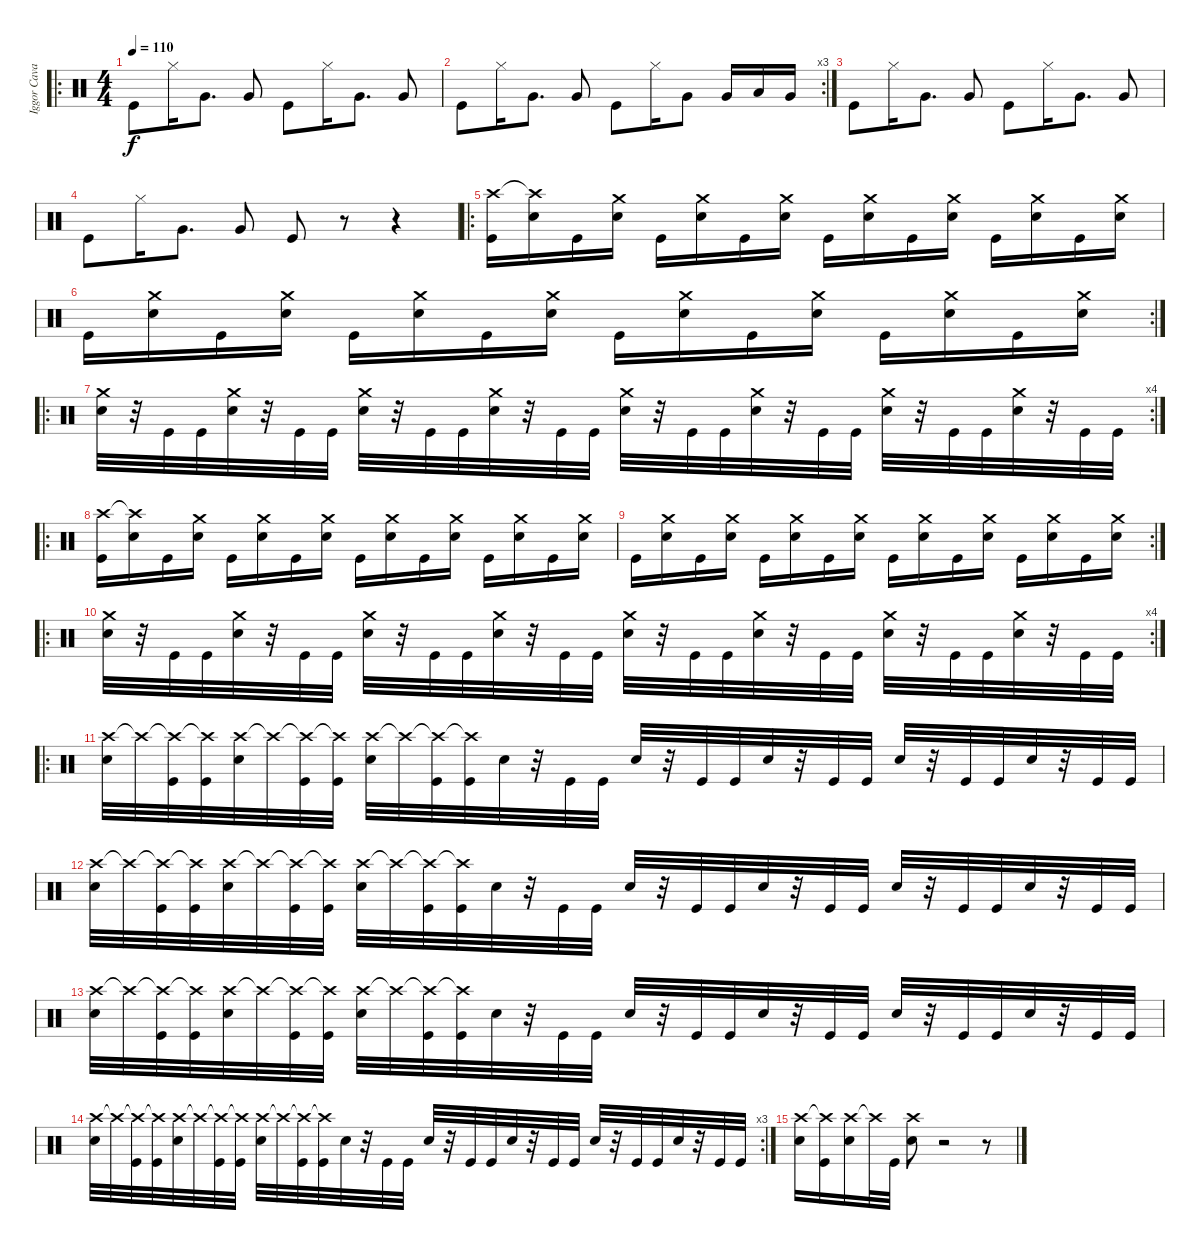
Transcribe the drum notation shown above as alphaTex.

\track ("Iggor Cavalera" "Iggor Cava") {instrument percussion}
\staff {score}
\articulation defaults
\ro
\ts (4 4)
\tempo 110
\clef neutral
\ks c "Kick (hit)".8{dy f} "Hi-Hat (closed)".16 "Very Low Tom (hit)".8{d} "Very Low Tom (hit)".8 "Kick (hit)".8 "Hi-Hat (closed)".16 "Very Low Tom (hit)".8{d} "Very Low Tom (hit)".8
|
\rc 3 "Kick (hit)".8 "Hi-Hat (closed)".16 "Very Low Tom (hit)".8{d} "Very Low Tom (hit)".8 "Kick (hit)".8 "Hi-Hat (closed)".16 "Very Low Tom (hit)".8 "Very Low Tom (hit)".16 "Low Tom (hit)".16 "Very Low Tom (hit)".16
|
"Kick (hit)".8 "Hi-Hat (closed)".16 "Very Low Tom (hit)".8{d} "Very Low Tom (hit)".8 "Kick (hit)".8 "Hi-Hat (closed)".16 "Very Low Tom (hit)".8{d} "Very Low Tom (hit)".8 |
"Kick (hit)".8 "Hi-Hat (closed)".16 "Very Low Tom (hit)".8{d} "Very Low Tom (hit)".8 "Kick (hit)".8 r.8 r.4 |
\ro
("Crash high (hit)" "Kick (hit)").16 ("Crash high (hit)"{t} "Snare (hit) 2").16 "Kick (hit)".16 ("Crash medium (hit)" "Snare (hit) 2").16 "Kick (hit)".16 ("Crash medium (hit)" "Snare (hit) 2").16 "Kick (hit)".16 ("Crash medium (hit)" "Snare (hit) 2").16 "Kick (hit)".16 ("Crash medium (hit)" "Snare (hit) 2").16 "Kick (hit)".16 ("Crash medium (hit)" "Snare (hit) 2").16 "Kick (hit)".16 ("Crash medium (hit)" "Snare (hit) 2").16 "Kick (hit)".16 ("Crash medium (hit)" "Snare (hit) 2").16 |
\rc 2 "Kick (hit)".16
("Crash medium (hit)" "Snare (hit) 2").16 "Kick (hit)".16 ("Crash medium (hit)" "Snare (hit) 2").16 "Kick (hit)".16 ("Crash medium (hit)" "Snare (hit) 2").16 "Kick (hit)".16 ("Crash medium (hit)" "Snare (hit) 2").16 "Kick (hit)".16 ("Crash medium (hit)" "Snare (hit) 2").16 "Kick (hit)".16 ("Crash medium (hit)" "Snare (hit) 2").16 "Kick (hit)".16 ("Crash medium (hit)" "Snare (hit) 2").16 "Kick (hit)".16 ("Crash medium (hit)" "Snare (hit) 2").16 |
\ro
\rc 4
("Crash medium (hit)" "Snare (hit) 2").32 r.32 "Kick (hit)".32 "Kick (hit)".32 ("Crash medium (hit)" "Snare (hit) 2").32 r.32 "Kick (hit)".32 "Kick (hit)".32 ("Crash medium (hit)" "Snare (hit) 2").32 r.32 "Kick (hit)".32 "Kick (hit)".32 ("Crash medium (hit)" "Snare (hit) 2").32 r.32 "Kick (hit)".32 "Kick (hit)".32 ("Crash medium (hit)" "Snare (hit) 2").32 r.32 "Kick (hit)".32 "Kick (hit)".32 ("Crash medium (hit)" "Snare (hit) 2").32 r.32 "Kick (hit)".32 "Kick (hit)".32 ("Crash medium (hit)" "Snare (hit) 2").32 r.32 "Kick (hit)".32 "Kick (hit)".32 ("Crash medium (hit)" "Snare (hit) 2").32 r.32 "Kick (hit)".32 "Kick (hit)".32 |
\ro
("Crash high (hit)" "Kick (hit)").16 ("Crash high (hit)"{t} "Snare (hit) 2").16 "Kick (hit)".16 ("Crash medium (hit)" "Snare (hit) 2").16 "Kick (hit)".16 ("Crash medium (hit)" "Snare (hit) 2").16 "Kick (hit)".16 ("Crash medium (hit)" "Snare (hit) 2").16 "Kick (hit)".16 ("Crash medium (hit)" "Snare (hit) 2").16 "Kick (hit)".16 ("Crash medium (hit)" "Snare (hit) 2").16 "Kick (hit)".16 ("Crash medium (hit)" "Snare (hit) 2").16 "Kick (hit)".16 ("Crash medium (hit)" "Snare (hit) 2").16 |
\rc 2 "Kick (hit)".16
("Crash medium (hit)" "Snare (hit) 2").16 "Kick (hit)".16 ("Crash medium (hit)" "Snare (hit) 2").16 "Kick (hit)".16 ("Crash medium (hit)" "Snare (hit) 2").16 "Kick (hit)".16 ("Crash medium (hit)" "Snare (hit) 2").16 "Kick (hit)".16 ("Crash medium (hit)" "Snare (hit) 2").16 "Kick (hit)".16 ("Crash medium (hit)" "Snare (hit) 2").16 "Kick (hit)".16 ("Crash medium (hit)" "Snare (hit) 2").16 "Kick (hit)".16 ("Crash medium (hit)" "Snare (hit) 2").16 |
\ro
\rc 4
("Crash medium (hit)" "Snare (hit) 2").32 r.32 "Kick (hit)".32 "Kick (hit)".32 ("Crash medium (hit)" "Snare (hit) 2").32 r.32 "Kick (hit)".32 "Kick (hit)".32 ("Crash medium (hit)" "Snare (hit) 2").32 r.32 "Kick (hit)".32 "Kick (hit)".32 ("Crash medium (hit)" "Snare (hit) 2").32 r.32 "Kick (hit)".32 "Kick (hit)".32 ("Crash medium (hit)" "Snare (hit) 2").32 r.32 "Kick (hit)".32 "Kick (hit)".32 ("Crash medium (hit)" "Snare (hit) 2").32 r.32 "Kick (hit)".32 "Kick (hit)".32 ("Crash medium (hit)" "Snare (hit) 2").32 r.32 "Kick (hit)".32 "Kick (hit)".32 ("Crash medium (hit)" "Snare (hit) 2").32 r.32 "Kick (hit)".32 "Kick (hit)".32 |
\ro
("Crash high (hit)" "Snare (hit) 2").32 "Crash high (hit)"{t}.32 ("Crash high (hit)"{t} "Kick (hit)").32 ("Crash high (hit)"{t} "Kick (hit)").32 ("Crash high (hit)" "Snare (hit) 2").32 "Crash high (hit)"{t}.32 ("Crash high (hit)"{t} "Kick (hit)").32 ("Crash high (hit)"{t} "Kick (hit)").32 ("Crash high (hit)" "Snare (hit) 2").32 "Crash high (hit)"{t}.32 ("Crash high (hit)"{t} "Kick (hit)").32 ("Crash high (hit)"{t} "Kick (hit)").32 "Snare (hit) 2".32 r.32 "Kick (hit)".32 "Kick (hit)".32 "Snare (hit) 2".32 r.32 "Kick (hit)".32 "Kick (hit)".32 "Snare (hit) 2".32 r.32 "Kick (hit)".32 "Kick (hit)".32 "Snare (hit) 2".32 r.32 "Kick (hit)".32 "Kick (hit)".32 "Snare (hit) 2".32 r.32 "Kick (hit)".32 "Kick (hit)".32 |
("Crash high (hit)" "Snare (hit) 2").32 "Crash high (hit)"{t}.32 ("Crash high (hit)"{t} "Kick (hit)").32 ("Crash high (hit)"{t} "Kick (hit)").32 ("Crash high (hit)" "Snare (hit) 2").32 "Crash high (hit)"{t}.32 ("Crash high (hit)"{t} "Kick (hit)").32 ("Crash high (hit)"{t} "Kick (hit)").32 ("Crash high (hit)" "Snare (hit) 2").32 "Crash high (hit)"{t}.32 ("Crash high (hit)"{t} "Kick (hit)").32 ("Crash high (hit)"{t} "Kick (hit)").32 "Snare (hit) 2".32 r.32 "Kick (hit)".32 "Kick (hit)".32 "Snare (hit) 2".32 r.32 "Kick (hit)".32 "Kick (hit)".32 "Snare (hit) 2".32 r.32 "Kick (hit)".32 "Kick (hit)".32 "Snare (hit) 2".32 r.32 "Kick (hit)".32 "Kick (hit)".32 "Snare (hit) 2".32 r.32 "Kick (hit)".32 "Kick (hit)".32 |
("Crash high (hit)" "Snare (hit) 2").32 "Crash high (hit)"{t}.32 ("Crash high (hit)"{t} "Kick (hit)").32 ("Crash high (hit)"{t} "Kick (hit)").32 ("Crash high (hit)" "Snare (hit) 2").32 "Crash high (hit)"{t}.32 ("Crash high (hit)"{t} "Kick (hit)").32 ("Crash high (hit)"{t} "Kick (hit)").32 ("Crash high (hit)" "Snare (hit) 2").32 "Crash high (hit)"{t}.32 ("Crash high (hit)"{t} "Kick (hit)").32 ("Crash high (hit)"{t} "Kick (hit)").32 "Snare (hit) 2".32 r.32 "Kick (hit)".32 "Kick (hit)".32 "Snare (hit) 2".32 r.32 "Kick (hit)".32 "Kick (hit)".32 "Snare (hit) 2".32 r.32 "Kick (hit)".32 "Kick (hit)".32 "Snare (hit) 2".32 r.32 "Kick (hit)".32 "Kick (hit)".32 "Snare (hit) 2".32 r.32 "Kick (hit)".32 "Kick (hit)".32 |
\rc 3
("Crash high (hit)" "Snare (hit) 2").32 "Crash high (hit)"{t}.32 ("Crash high (hit)"{t} "Kick (hit)").32 ("Crash high (hit)"{t} "Kick (hit)").32 ("Crash high (hit)" "Snare (hit) 2").32 "Crash high (hit)"{t}.32 ("Crash high (hit)"{t} "Kick (hit)").32 ("Crash high (hit)"{t} "Kick (hit)").32 ("Crash high (hit)" "Snare (hit) 2").32 "Crash high (hit)"{t}.32 ("Crash high (hit)"{t} "Kick (hit)").32 ("Crash high (hit)"{t} "Kick (hit)").32 "Snare (hit) 2".32 r.32 "Kick (hit)".32 "Kick (hit)".32 "Snare (hit) 2".32 r.32 "Kick (hit)".32 "Kick (hit)".32 "Snare (hit) 2".32 r.32 "Kick (hit)".32 "Kick (hit)".32 "Snare (hit) 2".32 r.32 "Kick (hit)".32 "Kick (hit)".32 "Snare (hit) 2".32 r.32 "Kick (hit)".32 "Kick (hit)".32 |
("Crash high (hit)" "Snare (hit) 2").16 ("Crash high (hit)"{t} "Kick (hit)").16 ("Crash high (hit)" "Snare (hit) 2").16 "Crash high (hit)"{t}.32 "Kick (hit)".32 ("Crash high (hit)" "Snare (hit) 2").8 r.2 r.8
